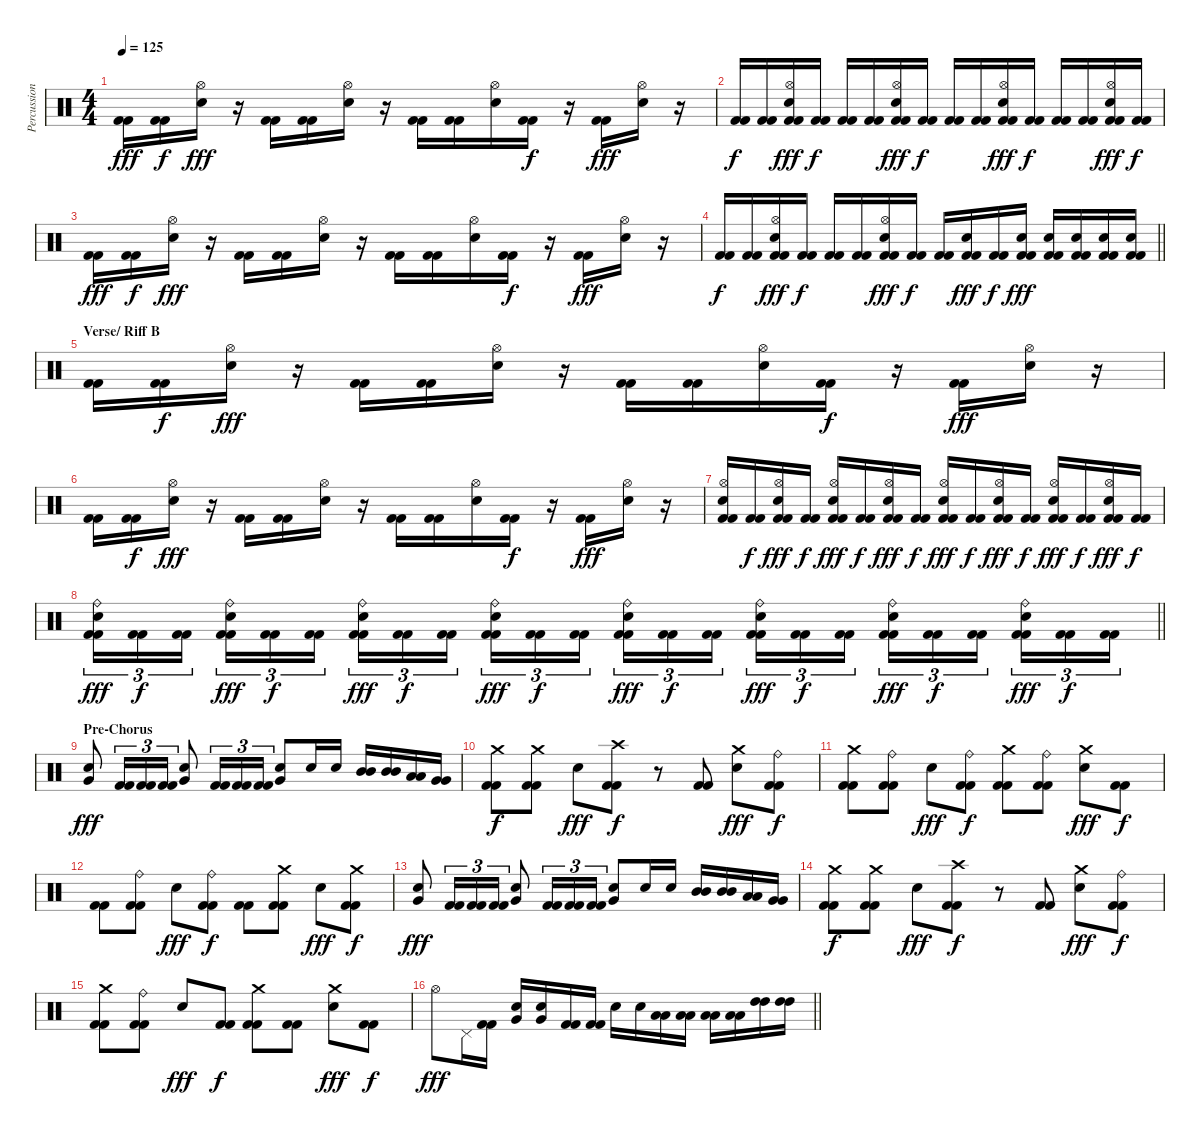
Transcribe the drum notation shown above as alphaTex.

\track ("Percussion" "Percussion") {solo instrument percussion}
\staff {score}
\articulation defaults
\ts (4 4)
\tempo 125
\clef neutral
\ks c
("Kick (hit) 2" "Kick (hit) 2").16{dy fff} ("Kick (hit) 2" "Kick (hit) 2").16{dy f} ("Hi-Hat (open)" "Electric Snare (hit)").16{dy fff} r.16 ("Kick (hit) 2" "Kick (hit) 2").16 ("Kick (hit) 2" "Kick (hit) 2").16 ("Hi-Hat (open)" "Electric Snare (hit)").16 r.16 ("Kick (hit) 2" "Kick (hit) 2").16 ("Kick (hit) 2" "Kick (hit) 2").16 ("Hi-Hat (open)" "Electric Snare (hit)").16 ("Kick (hit) 2" "Kick (hit) 2").16{dy f} r.16 ("Kick (hit) 2" "Kick (hit) 2").16{dy fff} ("Hi-Hat (open)" "Electric Snare (hit)").16 r.16 |
("Kick (hit) 2" "Kick (hit) 2").16{dy f} ("Kick (hit) 2" "Kick (hit) 2").16 ("Hi-Hat (open)" "Electric Snare (hit)" "Kick (hit) 2" "Kick (hit) 2").16{dy fff} ("Kick (hit) 2" "Kick (hit) 2").16{dy f} ("Kick (hit) 2" "Kick (hit) 2").16 ("Kick (hit) 2" "Kick (hit) 2").16 ("Hi-Hat (open)" "Electric Snare (hit)" "Kick (hit) 2" "Kick (hit) 2").16{dy fff} ("Kick (hit) 2" "Kick (hit) 2").16{dy f} ("Kick (hit) 2" "Kick (hit) 2").16 ("Kick (hit) 2" "Kick (hit) 2").16 ("Hi-Hat (open)" "Electric Snare (hit)" "Kick (hit) 2" "Kick (hit) 2").16{dy fff} ("Kick (hit) 2" "Kick (hit) 2").16{dy f} ("Kick (hit) 2" "Kick (hit) 2").16 ("Kick (hit) 2" "Kick (hit) 2").16 ("Hi-Hat (open)" "Electric Snare (hit)" "Kick (hit) 2" "Kick (hit) 2").16{dy fff} ("Kick (hit) 2" "Kick (hit) 2").16{dy f} |
("Kick (hit) 2" "Kick (hit) 2").16{dy fff} ("Kick (hit) 2" "Kick (hit) 2").16{dy f} ("Hi-Hat (open)" "Electric Snare (hit)").16{dy fff} r.16 ("Kick (hit) 2" "Kick (hit) 2").16 ("Kick (hit) 2" "Kick (hit) 2").16 ("Hi-Hat (open)" "Electric Snare (hit)").16 r.16 ("Kick (hit) 2" "Kick (hit) 2").16 ("Kick (hit) 2" "Kick (hit) 2").16 ("Hi-Hat (open)" "Electric Snare (hit)").16 ("Kick (hit) 2" "Kick (hit) 2").16{dy f} r.16 ("Kick (hit) 2" "Kick (hit) 2").16{dy fff} ("Hi-Hat (open)" "Electric Snare (hit)").16 r.16 |
\barLineRight lightlight
("Kick (hit) 2" "Kick (hit) 2").16{dy f} ("Kick (hit) 2" "Kick (hit) 2").16 ("Hi-Hat (open)" "Electric Snare (hit)" "Kick (hit) 2" "Kick (hit) 2").16{dy fff} ("Kick (hit) 2" "Kick (hit) 2").16{dy f} ("Kick (hit) 2" "Kick (hit) 2").16 ("Kick (hit) 2" "Kick (hit) 2").16 ("Hi-Hat (open)" "Electric Snare (hit)" "Kick (hit) 2" "Kick (hit) 2").16{dy fff} ("Kick (hit) 2" "Kick (hit) 2").16{dy f} ("Kick (hit) 2" "Kick (hit) 2").16 ("Electric Snare (hit)" "Kick (hit) 2" "Kick (hit) 2").16{dy fff} ("Kick (hit) 2" "Kick (hit) 2").16{dy f} ("Electric Snare (hit)" "Kick (hit) 2" "Kick (hit) 2").16{dy fff} ("Electric Snare (hit)" "Kick (hit) 2" "Kick (hit) 2").16 ("Electric Snare (hit)" "Kick (hit) 2" "Kick (hit) 2").16 ("Electric Snare (hit)" "Kick (hit) 2" "Kick (hit) 2").16 ("Electric Snare (hit)" "Kick (hit) 2" "Kick (hit) 2").16 |
\section ("" "Verse/ Riff B")
("Kick (hit) 2" "Kick (hit) 2").16 ("Kick (hit) 2" "Kick (hit) 2").16{dy f} ("Hi-Hat (open)" "Electric Snare (hit)").16{dy fff} r.16 ("Kick (hit) 2" "Kick (hit) 2").16 ("Kick (hit) 2" "Kick (hit) 2").16 ("Hi-Hat (open)" "Electric Snare (hit)").16 r.16 ("Kick (hit) 2" "Kick (hit) 2").16 ("Kick (hit) 2" "Kick (hit) 2").16 ("Hi-Hat (open)" "Electric Snare (hit)").16 ("Kick (hit) 2" "Kick (hit) 2").16{dy f} r.16 ("Kick (hit) 2" "Kick (hit) 2").16{dy fff} ("Hi-Hat (open)" "Electric Snare (hit)").16 r.16 |
("Kick (hit) 2" "Kick (hit) 2").16 ("Kick (hit) 2" "Kick (hit) 2").16{dy f} ("Hi-Hat (open)" "Electric Snare (hit)").16{dy fff} r.16 ("Kick (hit) 2" "Kick (hit) 2").16 ("Kick (hit) 2" "Kick (hit) 2").16 ("Hi-Hat (open)" "Electric Snare (hit)").16 r.16 ("Kick (hit) 2" "Kick (hit) 2").16 ("Kick (hit) 2" "Kick (hit) 2").16 ("Hi-Hat (open)" "Electric Snare (hit)").16 ("Kick (hit) 2" "Kick (hit) 2").16{dy f} r.16 ("Kick (hit) 2" "Kick (hit) 2").16{dy fff} ("Hi-Hat (open)" "Electric Snare (hit)").16 r.16 |
("Hi-Hat (open)" "Electric Snare (hit)" "Kick (hit) 2" "Kick (hit) 2").16 ("Kick (hit) 2" "Kick (hit) 2").16{dy f} ("Hi-Hat (open)" "Electric Snare (hit)" "Kick (hit) 2" "Kick (hit) 2").16{dy fff} ("Kick (hit) 2" "Kick (hit) 2").16{dy f} ("Hi-Hat (open)" "Electric Snare (hit)" "Kick (hit) 2" "Kick (hit) 2").16{dy fff} ("Kick (hit) 2" "Kick (hit) 2").16{dy f} ("Hi-Hat (open)" "Electric Snare (hit)" "Kick (hit) 2" "Kick (hit) 2").16{dy fff} ("Kick (hit) 2" "Kick (hit) 2").16{dy f} ("Hi-Hat (open)" "Electric Snare (hit)" "Kick (hit) 2" "Kick (hit) 2").16{dy fff} ("Kick (hit) 2" "Kick (hit) 2").16{dy f} ("Hi-Hat (open)" "Electric Snare (hit)" "Kick (hit) 2" "Kick (hit) 2").16{dy fff} ("Kick (hit) 2" "Kick (hit) 2").16{dy f} ("Hi-Hat (open)" "Electric Snare (hit)" "Kick (hit) 2" "Kick (hit) 2").16{dy fff} ("Kick (hit) 2" "Kick (hit) 2").16{dy f} ("Hi-Hat (open)" "Electric Snare (hit)" "Kick (hit) 2" "Kick (hit) 2").16{dy fff} ("Kick (hit) 2" "Kick (hit) 2").16{dy f} |
\barLineRight lightlight
("Ride (bell)" "Electric Snare (hit)" "Kick (hit) 2" "Kick (hit) 2").16{tu (3 2) dy fff} ("Kick (hit) 2" "Kick (hit) 2").16{tu (3 2) dy f} ("Kick (hit) 2" "Kick (hit) 2").16{tu (3 2) beam splitsecondary} ("Ride (bell)" "Electric Snare (hit)" "Kick (hit) 2" "Kick (hit) 2").16{tu (3 2) dy fff} ("Kick (hit) 2" "Kick (hit) 2").16{tu (3 2) dy f} ("Kick (hit) 2" "Kick (hit) 2").16{tu (3 2)} ("Ride (bell)" "Electric Snare (hit)" "Kick (hit) 2" "Kick (hit) 2").16{tu (3 2) dy fff} ("Kick (hit) 2" "Kick (hit) 2").16{tu (3 2) dy f} ("Kick (hit) 2" "Kick (hit) 2").16{tu (3 2) beam splitsecondary} ("Ride (bell)" "Electric Snare (hit)" "Kick (hit) 2" "Kick (hit) 2").16{tu (3 2) dy fff} ("Kick (hit) 2" "Kick (hit) 2").16{tu (3 2) dy f} ("Kick (hit) 2" "Kick (hit) 2").16{tu (3 2)} ("Ride (bell)" "Electric Snare (hit)" "Kick (hit) 2" "Kick (hit) 2").16{tu (3 2) dy fff} ("Kick (hit) 2" "Kick (hit) 2").16{tu (3 2) dy f} ("Kick (hit) 2" "Kick (hit) 2").16{tu (3 2) beam splitsecondary} ("Ride (bell)" "Electric Snare (hit)" "Kick (hit) 2" "Kick (hit) 2").16{tu (3 2) dy fff} ("Kick (hit) 2" "Kick (hit) 2").16{tu (3 2) dy f} ("Kick (hit) 2" "Kick (hit) 2").16{tu (3 2)} ("Ride (bell)" "Electric Snare (hit)" "Kick (hit) 2" "Kick (hit) 2").16{tu (3 2) dy fff} ("Kick (hit) 2" "Kick (hit) 2").16{tu (3 2) dy f} ("Kick (hit) 2" "Kick (hit) 2").16{tu (3 2) beam splitsecondary} ("Ride (bell)" "Electric Snare (hit)" "Kick (hit) 2" "Kick (hit) 2").16{tu (3 2) dy fff} ("Kick (hit) 2" "Kick (hit) 2").16{tu (3 2) dy f} ("Kick (hit) 2" "Kick (hit) 2").16{tu (3 2)} |
\section ("" "Pre-Chorus")
("Electric Snare (hit)" "Very Low Tom (hit)").8{dy fff} ("Kick (hit) 2" "Kick (hit) 2").16{tu (3 2)} ("Kick (hit) 2" "Kick (hit) 2").16{tu (3 2)} ("Kick (hit) 2" "Kick (hit) 2").16{tu (3 2)} ("Electric Snare (hit)" "Very Low Tom (hit)").8 ("Kick (hit) 2" "Kick (hit) 2").16{tu (3 2)} ("Kick (hit) 2" "Kick (hit) 2").16{tu (3 2)} ("Kick (hit) 2" "Kick (hit) 2").16{tu (3 2)} ("Electric Snare (hit)" "Very Low Tom (hit)").8 "Electric Snare (hit)".16 "Electric Snare (hit)".16 ("Mid Tom (hit)" "Mid Tom (hit)").16 ("Mid Tom (hit)" "Mid Tom (hit)").16 ("Low Tom (hit)" "Low Tom (hit)").16 ("Very Low Tom (hit)" "Very Low Tom (hit)").16 |
("Crash medium (hit)" "Kick (hit) 2" "Kick (hit) 2").8{dy f} ("Crash medium (hit)" "Kick (hit) 2" "Kick (hit) 2").8 "Electric Snare (hit)".8{dy fff} ("Crash high (hit)" "Kick (hit) 2" "Kick (hit) 2").8{dy f} r.8 ("Kick (hit) 2" "Kick (hit) 2").8 ("Crash medium (hit)" "Electric Snare (hit)").8{dy fff} ("Ride (bell)" "Kick (hit) 2" "Kick (hit) 2").8{dy f} |
("Crash medium (hit)" "Kick (hit) 2" "Kick (hit) 2").8 ("Ride (bell)" "Kick (hit) 2" "Kick (hit) 2").8 "Electric Snare (hit)".8{dy fff} ("Ride (bell)" "Kick (hit) 2" "Kick (hit) 2").8{dy f} ("Crash medium (hit)" "Kick (hit) 2" "Kick (hit) 2").8 ("Ride (bell)" "Kick (hit) 2" "Kick (hit) 2").8 ("Crash medium (hit)" "Electric Snare (hit)").8{dy fff} ("Kick (hit) 2" "Kick (hit) 2").8{dy f} |
("Kick (hit) 2" "Kick (hit) 2").8 ("Ride (bell)" "Kick (hit) 2" "Kick (hit) 2").8 "Electric Snare (hit)".8{dy fff} ("Ride (bell)" "Kick (hit) 2" "Kick (hit) 2").8{dy f} ("Kick (hit) 2" "Kick (hit) 2").8 ("Crash medium (hit)" "Kick (hit) 2" "Kick (hit) 2").8 "Electric Snare (hit)".8{dy fff} ("Crash medium (hit)" "Kick (hit) 2" "Kick (hit) 2").8{dy f} |
("Electric Snare (hit)" "Very Low Tom (hit)").8{dy fff} ("Kick (hit) 2" "Kick (hit) 2").16{tu (3 2)} ("Kick (hit) 2" "Kick (hit) 2").16{tu (3 2)} ("Kick (hit) 2" "Kick (hit) 2").16{tu (3 2)} ("Electric Snare (hit)" "Very Low Tom (hit)").8 ("Kick (hit) 2" "Kick (hit) 2").16{tu (3 2)} ("Kick (hit) 2" "Kick (hit) 2").16{tu (3 2)} ("Kick (hit) 2" "Kick (hit) 2").16{tu (3 2)} ("Electric Snare (hit)" "Very Low Tom (hit)").8 "Electric Snare (hit)".16 "Electric Snare (hit)".16 ("Mid Tom (hit)" "Mid Tom (hit)").16 ("Mid Tom (hit)" "Mid Tom (hit)").16 ("Low Tom (hit)" "Low Tom (hit)").16 ("Very Low Tom (hit)" "Very Low Tom (hit)").16 |
("Crash medium (hit)" "Kick (hit) 2" "Kick (hit) 2").8{dy f} ("Crash medium (hit)" "Kick (hit) 2" "Kick (hit) 2").8 "Electric Snare (hit)".8{dy fff} ("Crash high (hit)" "Kick (hit) 2" "Kick (hit) 2").8{dy f} r.8 ("Kick (hit) 2" "Kick (hit) 2").8 ("Crash medium (hit)" "Electric Snare (hit)").8{dy fff} ("Ride (bell)" "Kick (hit) 2" "Kick (hit) 2").8{dy f} |
("Crash medium (hit)" "Kick (hit) 2" "Kick (hit) 2").8 ("Ride (bell)" "Kick (hit) 2" "Kick (hit) 2").8 "Electric Snare (hit)".8{dy fff} ("Kick (hit) 2" "Kick (hit) 2").8{dy f} ("Crash medium (hit)" "Kick (hit) 2" "Kick (hit) 2").8 ("Kick (hit) 2" "Kick (hit) 2").8 ("Crash medium (hit)" "Electric Snare (hit)").8{dy fff} ("Kick (hit) 2" "Kick (hit) 2").8{dy f} |
\barLineRight lightlight "Hi-Hat (open)".8{dy fff} "Pedal Hi-Hat (hit)".16
("Kick (hit) 2" "Kick (hit) 2").16 ("Very Low Tom (hit)" "Electric Snare (hit)").16 ("Very Low Tom (hit)" "Electric Snare (hit)").16 ("Kick (hit) 2" "Kick (hit) 2").16 ("Kick (hit) 2" "Kick (hit) 2").16 "Electric Snare (hit)".16 "Electric Snare (hit)".16 ("Low Tom (hit)" "Low Tom (hit)").16 ("Low Tom (hit)" "Low Tom (hit)").16 ("Low Tom (hit)" "Low Tom (hit)").16 ("Low Tom (hit)" "Low Tom (hit)").16 ("High Tom (hit)" "High Tom (hit)").16 ("High Tom (hit)" "High Tom (hit)").16
